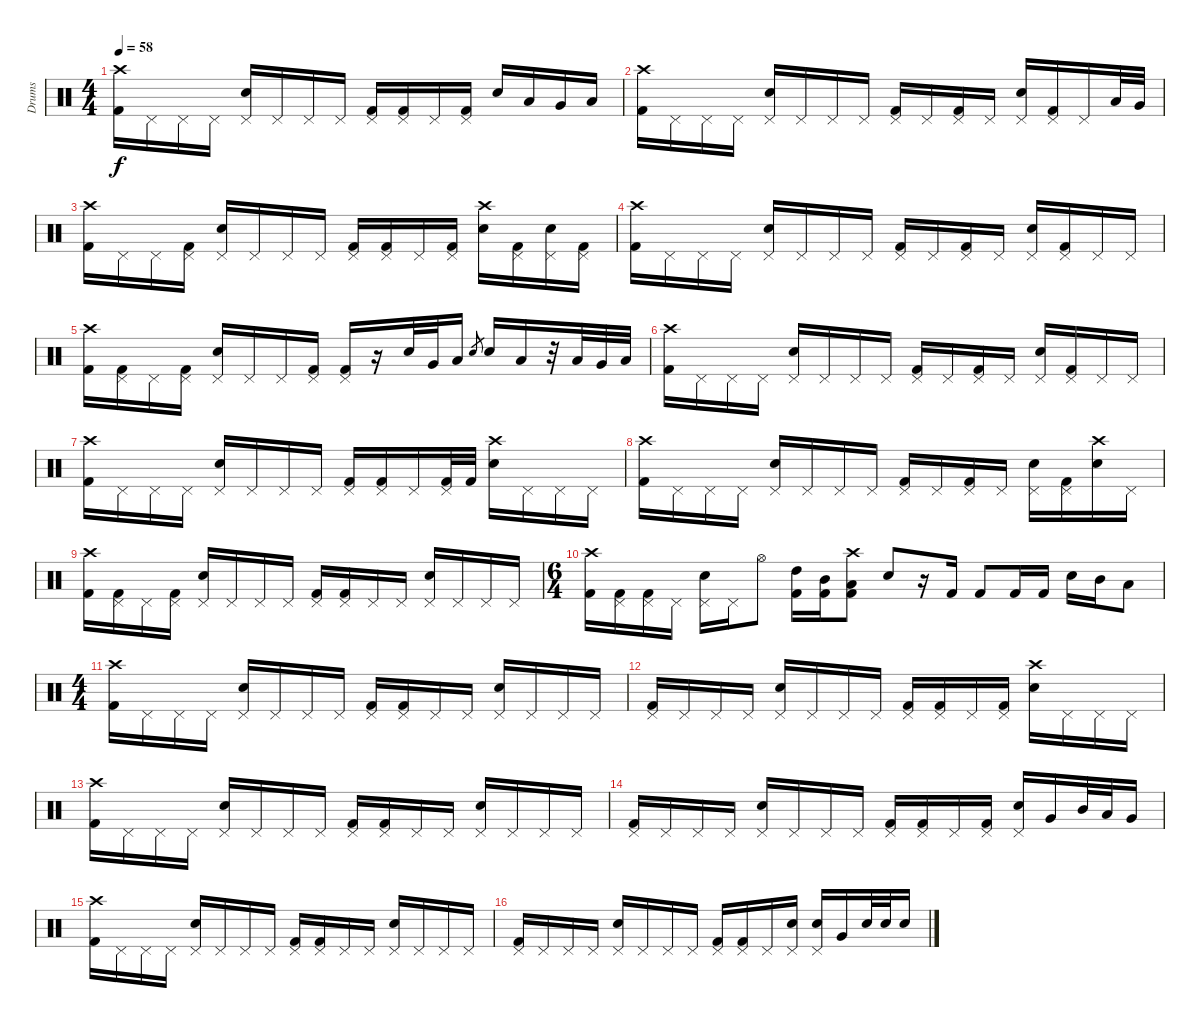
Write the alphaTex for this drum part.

\track ("Drums" "Drums") {instrument percussion}
\staff {score}
\articulation defaults
\ts (4 4)
\tempo 58
\clef neutral
\ks c
("Crash high (hit)" "Kick (hit) 2").16{dy f} "Pedal Hi-Hat (hit)".16 "Pedal Hi-Hat (hit)".16 "Pedal Hi-Hat (hit)".16 ("Pedal Hi-Hat (hit)" "Electric Snare (hit)").16 "Pedal Hi-Hat (hit)".16 "Pedal Hi-Hat (hit)".16 "Pedal Hi-Hat (hit)".16 ("Pedal Hi-Hat (hit)" "Kick (hit) 2").16 ("Pedal Hi-Hat (hit)" "Kick (hit) 2").16 "Pedal Hi-Hat (hit)".16 ("Pedal Hi-Hat (hit)" "Kick (hit) 2").16 "Electric Snare (hit)".16 "Low Tom (hit)".16 "Very Low Tom (hit)".16 "Low Floor Tom (hit)".16 |
("Crash high (hit)" "Kick (hit) 2").16 "Pedal Hi-Hat (hit)".16 "Pedal Hi-Hat (hit)".16 "Pedal Hi-Hat (hit)".16 ("Pedal Hi-Hat (hit)" "Electric Snare (hit)").16 "Pedal Hi-Hat (hit)".16 "Pedal Hi-Hat (hit)".16 "Pedal Hi-Hat (hit)".16 ("Pedal Hi-Hat (hit)" "Kick (hit) 2").16 "Pedal Hi-Hat (hit)".16 ("Pedal Hi-Hat (hit)" "Kick (hit) 2").16 "Pedal Hi-Hat (hit)".16 ("Pedal Hi-Hat (hit)" "Electric Snare (hit)").16 ("Pedal Hi-Hat (hit)" "Kick (hit) 2").16 "Pedal Hi-Hat (hit)".16 "Low Tom (hit)".32 "Very Low Tom (hit)".32 |
("Crash high (hit)" "Kick (hit) 2").16 "Pedal Hi-Hat (hit)".16 "Pedal Hi-Hat (hit)".16 ("Pedal Hi-Hat (hit)" "Kick (hit) 2").16 ("Pedal Hi-Hat (hit)" "Electric Snare (hit)").16 "Pedal Hi-Hat (hit)".16 "Pedal Hi-Hat (hit)".16 "Pedal Hi-Hat (hit)".16 ("Pedal Hi-Hat (hit)" "Kick (hit) 2").16 ("Pedal Hi-Hat (hit)" "Kick (hit) 2").16 "Pedal Hi-Hat (hit)".16 ("Pedal Hi-Hat (hit)" "Kick (hit) 2").16 ("Crash high (hit)" "Electric Snare (hit)").16 ("Pedal Hi-Hat (hit)" "Kick (hit) 2").16 ("Pedal Hi-Hat (hit)" "Electric Snare (hit)").16 ("Pedal Hi-Hat (hit)" "Kick (hit) 2").16 |
("Crash high (hit)" "Kick (hit) 2").16 "Pedal Hi-Hat (hit)".16 "Pedal Hi-Hat (hit)".16 "Pedal Hi-Hat (hit)".16 ("Pedal Hi-Hat (hit)" "Electric Snare (hit)").16 "Pedal Hi-Hat (hit)".16 "Pedal Hi-Hat (hit)".16 "Pedal Hi-Hat (hit)".16 ("Pedal Hi-Hat (hit)" "Kick (hit) 2").16 "Pedal Hi-Hat (hit)".16 ("Pedal Hi-Hat (hit)" "Kick (hit) 2").16 "Pedal Hi-Hat (hit)".16 ("Pedal Hi-Hat (hit)" "Electric Snare (hit)").16 ("Pedal Hi-Hat (hit)" "Kick (hit) 2").16 "Pedal Hi-Hat (hit)".16 "Pedal Hi-Hat (hit)".16 |
("Crash high (hit)" "Kick (hit) 2").16 ("Pedal Hi-Hat (hit)" "Kick (hit) 2").16 "Pedal Hi-Hat (hit)".16 ("Pedal Hi-Hat (hit)" "Kick (hit) 2").16 ("Pedal Hi-Hat (hit)" "Electric Snare (hit)").16 "Pedal Hi-Hat (hit)".16 "Pedal Hi-Hat (hit)".16 ("Pedal Hi-Hat (hit)" "Kick (hit) 2").16 ("Pedal Hi-Hat (hit)" "Kick (hit) 2").16 r.16 "Electric Snare (hit)".32 "Very Low Tom (hit)".32 "Low Floor Tom (hit)".16 "Electric Snare (hit)".8{gr} "Electric Snare (hit)".16 "Low Floor Tom (hit)".16 r.32 "Low Tom (hit)".32 "Very Low Tom (hit)".32 "Low Floor Tom (hit)".32 |
("Crash high (hit)" "Kick (hit) 2").16 "Pedal Hi-Hat (hit)".16 "Pedal Hi-Hat (hit)".16 "Pedal Hi-Hat (hit)".16 ("Pedal Hi-Hat (hit)" "Electric Snare (hit)").16 "Pedal Hi-Hat (hit)".16 "Pedal Hi-Hat (hit)".16 "Pedal Hi-Hat (hit)".16 ("Pedal Hi-Hat (hit)" "Kick (hit) 2").16 "Pedal Hi-Hat (hit)".16 ("Pedal Hi-Hat (hit)" "Kick (hit) 2").16 "Pedal Hi-Hat (hit)".16 ("Pedal Hi-Hat (hit)" "Electric Snare (hit)").16 ("Pedal Hi-Hat (hit)" "Kick (hit) 2").16 "Pedal Hi-Hat (hit)".16 "Pedal Hi-Hat (hit)".16 |
("Crash high (hit)" "Kick (hit) 2").16 "Pedal Hi-Hat (hit)".16 "Pedal Hi-Hat (hit)".16 "Pedal Hi-Hat (hit)".16 ("Pedal Hi-Hat (hit)" "Electric Snare (hit)").16 "Pedal Hi-Hat (hit)".16 "Pedal Hi-Hat (hit)".16 "Pedal Hi-Hat (hit)".16 ("Pedal Hi-Hat (hit)" "Kick (hit) 2").16 ("Pedal Hi-Hat (hit)" "Kick (hit) 2").16 "Pedal Hi-Hat (hit)".16 ("Pedal Hi-Hat (hit)" "Kick (hit) 2").32 "Kick (hit) 2".32 ("Crash high (hit)" "Electric Snare (hit)").16 "Pedal Hi-Hat (hit)".16 "Pedal Hi-Hat (hit)".16 "Pedal Hi-Hat (hit)".16 |
("Crash high (hit)" "Kick (hit) 2").16 "Pedal Hi-Hat (hit)".16 "Pedal Hi-Hat (hit)".16 "Pedal Hi-Hat (hit)".16 ("Pedal Hi-Hat (hit)" "Electric Snare (hit)").16 "Pedal Hi-Hat (hit)".16 "Pedal Hi-Hat (hit)".16 "Pedal Hi-Hat (hit)".16 ("Pedal Hi-Hat (hit)" "Kick (hit) 2").16 "Pedal Hi-Hat (hit)".16 ("Pedal Hi-Hat (hit)" "Kick (hit) 2").16 "Pedal Hi-Hat (hit)".16 ("Pedal Hi-Hat (hit)" "Electric Snare (hit)").16 ("Pedal Hi-Hat (hit)" "Kick (hit) 2").16 ("Crash high (hit)" "Electric Snare (hit)").16 "Pedal Hi-Hat (hit)".16 |
("Crash high (hit)" "Kick (hit) 2").16 ("Pedal Hi-Hat (hit)" "Kick (hit) 2").16 "Pedal Hi-Hat (hit)".16 ("Pedal Hi-Hat (hit)" "Kick (hit) 2").16 ("Pedal Hi-Hat (hit)" "Electric Snare (hit)").16 "Pedal Hi-Hat (hit)".16 "Pedal Hi-Hat (hit)".16 "Pedal Hi-Hat (hit)".16 ("Pedal Hi-Hat (hit)" "Kick (hit) 2").16 ("Pedal Hi-Hat (hit)" "Kick (hit) 2").16 "Pedal Hi-Hat (hit)".16 "Pedal Hi-Hat (hit)".16 ("Pedal Hi-Hat (hit)" "Electric Snare (hit)").16 "Pedal Hi-Hat (hit)".16 "Pedal Hi-Hat (hit)".16 "Pedal Hi-Hat (hit)".16 |
\ts (6 4)
("Crash high (hit)" "Kick (hit) 2").16 ("Pedal Hi-Hat (hit)" "Kick (hit) 2").16 ("Pedal Hi-Hat (hit)" "Kick (hit) 2").16 "Pedal Hi-Hat (hit)".16 ("Pedal Hi-Hat (hit)" "Electric Snare (hit)").16 "Pedal Hi-Hat (hit)".16 "Hi-Hat (open)".8 ("High Tom (hit)" "Kick (hit) 2").16 ("Mid Tom (hit)" "Kick (hit) 2").16 ("Crash high (hit)" "Low Tom (hit)" "Kick (hit) 2").8 "Electric Snare (hit)".8 r.16 "Kick (hit) 2".16 "Kick (hit) 2".8 "Kick (hit) 2".16 "Kick (hit) 2".16 "Electric Snare (hit)".16 "Mid Tom (hit)".16 "Low Tom (hit)".8 |
\ts (4 4)
("Crash high (hit)" "Kick (hit) 2").16 "Pedal Hi-Hat (hit)".16 "Pedal Hi-Hat (hit)".16 "Pedal Hi-Hat (hit)".16 ("Pedal Hi-Hat (hit)" "Electric Snare (hit)").16 "Pedal Hi-Hat (hit)".16 "Pedal Hi-Hat (hit)".16 "Pedal Hi-Hat (hit)".16 ("Pedal Hi-Hat (hit)" "Kick (hit) 2").16 ("Pedal Hi-Hat (hit)" "Kick (hit) 2").16 "Pedal Hi-Hat (hit)".16 "Pedal Hi-Hat (hit)".16 ("Pedal Hi-Hat (hit)" "Electric Snare (hit)").16 "Pedal Hi-Hat (hit)".16 "Pedal Hi-Hat (hit)".16 "Pedal Hi-Hat (hit)".16 |
("Pedal Hi-Hat (hit)" "Kick (hit) 2").16 "Pedal Hi-Hat (hit)".16 "Pedal Hi-Hat (hit)".16 "Pedal Hi-Hat (hit)".16 ("Pedal Hi-Hat (hit)" "Electric Snare (hit)").16 "Pedal Hi-Hat (hit)".16 "Pedal Hi-Hat (hit)".16 "Pedal Hi-Hat (hit)".16 ("Pedal Hi-Hat (hit)" "Kick (hit) 2").16 ("Pedal Hi-Hat (hit)" "Kick (hit) 2").16 "Pedal Hi-Hat (hit)".16 ("Pedal Hi-Hat (hit)" "Kick (hit) 2").16 ("Crash high (hit)" "Electric Snare (hit)").16 "Pedal Hi-Hat (hit)".16 "Pedal Hi-Hat (hit)".16 "Pedal Hi-Hat (hit)".16 |
("Crash high (hit)" "Kick (hit) 2").16 "Pedal Hi-Hat (hit)".16 "Pedal Hi-Hat (hit)".16 "Pedal Hi-Hat (hit)".16 ("Pedal Hi-Hat (hit)" "Electric Snare (hit)").16 "Pedal Hi-Hat (hit)".16 "Pedal Hi-Hat (hit)".16 "Pedal Hi-Hat (hit)".16 ("Pedal Hi-Hat (hit)" "Kick (hit) 2").16 ("Pedal Hi-Hat (hit)" "Kick (hit) 2").16 "Pedal Hi-Hat (hit)".16 "Pedal Hi-Hat (hit)".16 ("Pedal Hi-Hat (hit)" "Electric Snare (hit)").16 "Pedal Hi-Hat (hit)".16 "Pedal Hi-Hat (hit)".16 "Pedal Hi-Hat (hit)".16 |
("Pedal Hi-Hat (hit)" "Kick (hit) 2").16 "Pedal Hi-Hat (hit)".16 "Pedal Hi-Hat (hit)".16 "Pedal Hi-Hat (hit)".16 ("Pedal Hi-Hat (hit)" "Electric Snare (hit)").16 "Pedal Hi-Hat (hit)".16 "Pedal Hi-Hat (hit)".16 "Pedal Hi-Hat (hit)".16 ("Pedal Hi-Hat (hit)" "Kick (hit) 2").16 ("Pedal Hi-Hat (hit)" "Kick (hit) 2").16 "Pedal Hi-Hat (hit)".16 ("Pedal Hi-Hat (hit)" "Kick (hit) 2").16 ("Pedal Hi-Hat (hit)" "Electric Snare (hit)").16 "Very Low Tom (hit)".16 "Mid Tom (hit)".32 "Low Tom (hit)".32 "Very Low Tom (hit)".16 |
("Crash high (hit)" "Kick (hit) 2").16 "Pedal Hi-Hat (hit)".16 "Pedal Hi-Hat (hit)".16 "Pedal Hi-Hat (hit)".16 ("Pedal Hi-Hat (hit)" "Electric Snare (hit)").16 "Pedal Hi-Hat (hit)".16 "Pedal Hi-Hat (hit)".16 "Pedal Hi-Hat (hit)".16 ("Pedal Hi-Hat (hit)" "Kick (hit) 2").16 ("Pedal Hi-Hat (hit)" "Kick (hit) 2").16 "Pedal Hi-Hat (hit)".16 "Pedal Hi-Hat (hit)".16 ("Pedal Hi-Hat (hit)" "Electric Snare (hit)").16 "Pedal Hi-Hat (hit)".16 "Pedal Hi-Hat (hit)".16 "Pedal Hi-Hat (hit)".16 |
("Pedal Hi-Hat (hit)" "Kick (hit) 2").16 "Pedal Hi-Hat (hit)".16 "Pedal Hi-Hat (hit)".16 "Pedal Hi-Hat (hit)".16 ("Pedal Hi-Hat (hit)" "Electric Snare (hit)").16 "Pedal Hi-Hat (hit)".16 "Pedal Hi-Hat (hit)".16 "Pedal Hi-Hat (hit)".16 ("Pedal Hi-Hat (hit)" "Kick (hit) 2").16 ("Pedal Hi-Hat (hit)" "Kick (hit) 2").16 "Pedal Hi-Hat (hit)".16 ("Pedal Hi-Hat (hit)" "Electric Snare (hit)").16 ("Pedal Hi-Hat (hit)" "Electric Snare (hit)").16 "Very Low Tom (hit)".16 "Electric Snare (hit)".32 "Electric Snare (hit)".32 "Electric Snare (hit)".16
